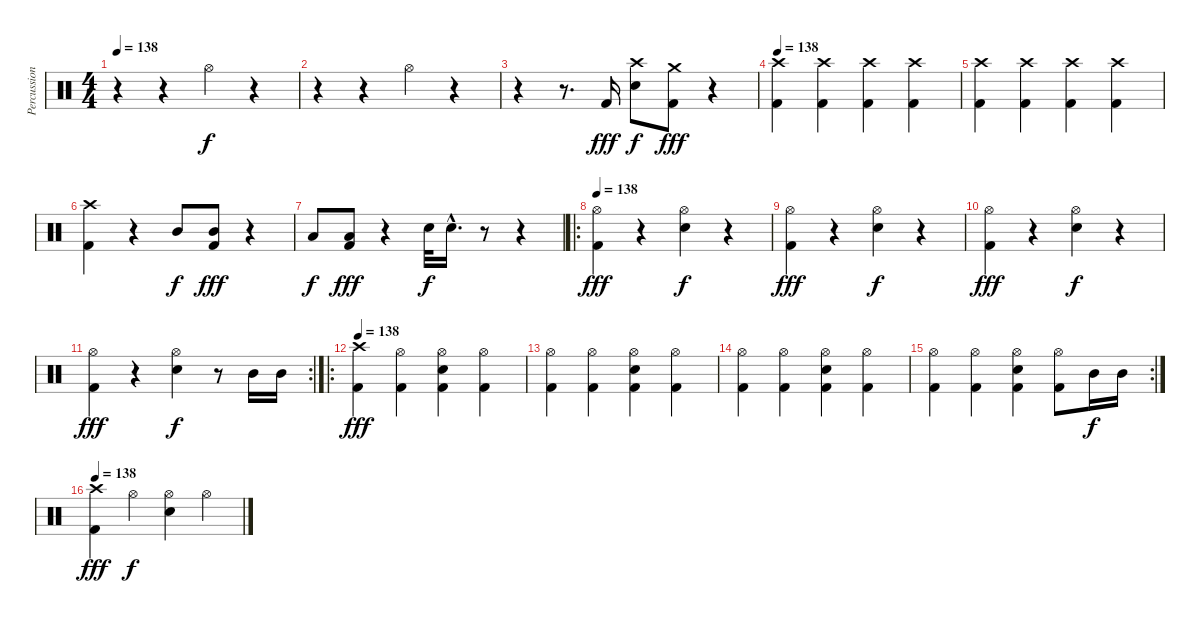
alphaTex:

\track ("Percussion" "Percussion") {instrument percussion}
\staff {score}
\articulation defaults
\ts (4 4)
\tempo 138
\clef neutral
\ks c
r.4{dy f} r.4 "Hi-Hat (open)".4 r.4 |
r.4 r.4 "Hi-Hat (open)".4 r.4 |
r.4 r.8{d} "Kick (hit) 2".16{dy fff} ("Crash high (hit)" "Snare (hit) 2").8{dy f} ("Crash medium (hit)" "Kick (hit) 2").8{dy fff} r.4 |
\tempo 138
("Crash high (hit)" "Kick (hit) 2").4 ("Crash high (hit)" "Kick (hit) 2").4 ("Crash high (hit)" "Kick (hit) 2").4 ("Crash high (hit)" "Kick (hit) 2").4 |
("Crash high (hit)" "Kick (hit) 2").4 ("Crash high (hit)" "Kick (hit) 2").4 ("Crash high (hit)" "Kick (hit) 2").4 ("Crash high (hit)" "Kick (hit) 2").4 |
("Crash high (hit)" "Kick (hit) 2").4 r.4 "Mid Tom (hit)".8{dy f} ("Mid Tom (hit)" "Kick (hit) 2").8{dy fff} r.4 |
"Low Tom (hit)".8{dy f} ("Low Tom (hit)" "Kick (hit) 2").8{dy fff} r.4 "Snare (hit) 2".32{dy f} "Snare (hit) 2"{hac}.16{d} r.8 r.4 |
\ro
\tempo 138
("Hi-Hat (open)" "Kick (hit) 2").4{dy fff} r.4 ("Hi-Hat (open)" "Snare (hit) 2").4{dy f} r.4 |
("Hi-Hat (open)" "Kick (hit) 2").4{dy fff} r.4 ("Hi-Hat (open)" "Snare (hit) 2").4{dy f} r.4 |
("Hi-Hat (open)" "Kick (hit) 2").4{dy fff} r.4 ("Hi-Hat (open)" "Snare (hit) 2").4{dy f} r.4 |
\rc 2
("Hi-Hat (open)" "Kick (hit) 2").4{dy fff} r.4 ("Hi-Hat (open)" "Snare (hit) 2").4{dy f} r.8 "Mid Tom (hit)".16 "Mid Tom (hit)".16 |
\ro
\tempo 138
("Crash high (hit)" "Kick (hit) 2").4{dy fff} ("Hi-Hat (open)" "Kick (hit) 2").4 ("Hi-Hat (open)" "Snare (hit) 2" "Kick (hit) 2").4 ("Hi-Hat (open)" "Kick (hit) 2").4 |
("Hi-Hat (open)" "Kick (hit) 2").4 ("Hi-Hat (open)" "Kick (hit) 2").4 ("Hi-Hat (open)" "Snare (hit) 2" "Kick (hit) 2").4 ("Hi-Hat (open)" "Kick (hit) 2").4 |
("Hi-Hat (open)" "Kick (hit) 2").4 ("Hi-Hat (open)" "Kick (hit) 2").4 ("Hi-Hat (open)" "Snare (hit) 2" "Kick (hit) 2").4 ("Hi-Hat (open)" "Kick (hit) 2").4 |
\rc 2
("Hi-Hat (open)" "Kick (hit) 2").4 ("Hi-Hat (open)" "Kick (hit) 2").4 ("Hi-Hat (open)" "Snare (hit) 2" "Kick (hit) 2").4 ("Hi-Hat (open)" "Kick (hit) 2").8 "Mid Tom (hit)".16{dy f} "Mid Tom (hit)".16 |
\tempo 138
("Crash high (hit)" "Kick (hit) 2").4{dy fff} "Hi-Hat (open)".4{dy f} ("Hi-Hat (open)" "Snare (hit) 2").4 "Hi-Hat (open)".4
